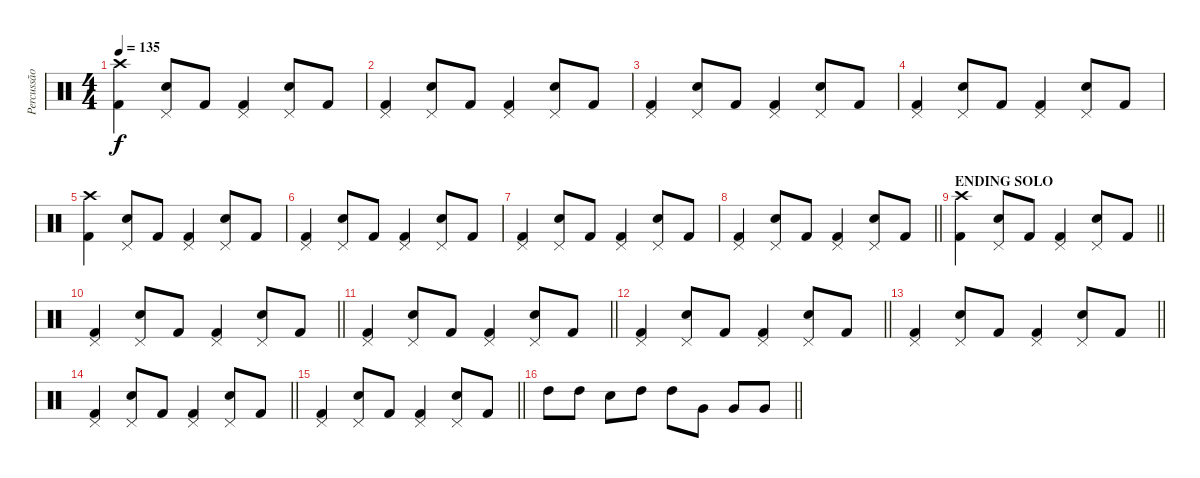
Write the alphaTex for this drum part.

\track ("Percussão" "Percussão") {instrument percussion}
\staff {score}
\articulation defaults
\ts (4 4)
\tempo 135
\clef neutral
\ks c
("Crash high (hit)" "Kick (hit) 2").4{dy f} ("Pedal Hi-Hat (hit)" "Snare (hit) 2").8 "Kick (hit) 2".8 ("Pedal Hi-Hat (hit)" "Kick (hit) 2").4 ("Pedal Hi-Hat (hit)" "Snare (hit) 2").8 "Kick (hit) 2".8 |
("Pedal Hi-Hat (hit)" "Kick (hit) 2").4 ("Pedal Hi-Hat (hit)" "Snare (hit) 2").8 "Kick (hit) 2".8 ("Pedal Hi-Hat (hit)" "Kick (hit) 2").4 ("Pedal Hi-Hat (hit)" "Snare (hit) 2").8 "Kick (hit) 2".8 |
("Pedal Hi-Hat (hit)" "Kick (hit) 2").4 ("Pedal Hi-Hat (hit)" "Snare (hit) 2").8 "Kick (hit) 2".8 ("Pedal Hi-Hat (hit)" "Kick (hit) 2").4 ("Pedal Hi-Hat (hit)" "Snare (hit) 2").8 "Kick (hit) 2".8 |
("Pedal Hi-Hat (hit)" "Kick (hit) 2").4 ("Pedal Hi-Hat (hit)" "Snare (hit) 2").8 "Kick (hit) 2".8 ("Pedal Hi-Hat (hit)" "Kick (hit) 2").4 ("Pedal Hi-Hat (hit)" "Snare (hit) 2").8 "Kick (hit) 2".8 |
("Crash high (hit)" "Kick (hit) 2").4 ("Pedal Hi-Hat (hit)" "Snare (hit) 2").8 "Kick (hit) 2".8 ("Pedal Hi-Hat (hit)" "Kick (hit) 2").4 ("Pedal Hi-Hat (hit)" "Snare (hit) 2").8 "Kick (hit) 2".8 |
("Pedal Hi-Hat (hit)" "Kick (hit) 2").4 ("Pedal Hi-Hat (hit)" "Snare (hit) 2").8 "Kick (hit) 2".8 ("Pedal Hi-Hat (hit)" "Kick (hit) 2").4 ("Pedal Hi-Hat (hit)" "Snare (hit) 2").8 "Kick (hit) 2".8 |
("Pedal Hi-Hat (hit)" "Kick (hit) 2").4 ("Pedal Hi-Hat (hit)" "Snare (hit) 2").8 "Kick (hit) 2".8 ("Pedal Hi-Hat (hit)" "Kick (hit) 2").4 ("Pedal Hi-Hat (hit)" "Snare (hit) 2").8 "Kick (hit) 2".8 |
\barLineRight lightlight
("Pedal Hi-Hat (hit)" "Kick (hit) 2").4 ("Pedal Hi-Hat (hit)" "Snare (hit) 2").8 "Kick (hit) 2".8 ("Pedal Hi-Hat (hit)" "Kick (hit) 2").4 ("Pedal Hi-Hat (hit)" "Snare (hit) 2").8 "Kick (hit) 2".8 |
\section ("" "ENDING SOLO")
\barLineRight lightlight
("Crash high (hit)" "Kick (hit) 2").4 ("Pedal Hi-Hat (hit)" "Snare (hit) 2").8 "Kick (hit) 2".8 ("Pedal Hi-Hat (hit)" "Kick (hit) 2").4 ("Pedal Hi-Hat (hit)" "Snare (hit) 2").8 "Kick (hit) 2".8 |
\barLineRight lightlight
("Pedal Hi-Hat (hit)" "Kick (hit) 2").4 ("Pedal Hi-Hat (hit)" "Snare (hit) 2").8 "Kick (hit) 2".8 ("Pedal Hi-Hat (hit)" "Kick (hit) 2").4 ("Pedal Hi-Hat (hit)" "Snare (hit) 2").8 "Kick (hit) 2".8 |
\barLineRight lightlight
("Pedal Hi-Hat (hit)" "Kick (hit) 2").4 ("Pedal Hi-Hat (hit)" "Snare (hit) 2").8 "Kick (hit) 2".8 ("Pedal Hi-Hat (hit)" "Kick (hit) 2").4 ("Pedal Hi-Hat (hit)" "Snare (hit) 2").8 "Kick (hit) 2".8 |
\barLineRight lightlight
("Pedal Hi-Hat (hit)" "Kick (hit) 2").4 ("Pedal Hi-Hat (hit)" "Snare (hit) 2").8 "Kick (hit) 2".8 ("Pedal Hi-Hat (hit)" "Kick (hit) 2").4 ("Pedal Hi-Hat (hit)" "Snare (hit) 2").8 "Kick (hit) 2".8 |
\barLineRight lightlight
("Pedal Hi-Hat (hit)" "Kick (hit) 2").4 ("Pedal Hi-Hat (hit)" "Snare (hit) 2").8 "Kick (hit) 2".8 ("Pedal Hi-Hat (hit)" "Kick (hit) 2").4 ("Pedal Hi-Hat (hit)" "Snare (hit) 2").8 "Kick (hit) 2".8 |
\barLineRight lightlight
("Pedal Hi-Hat (hit)" "Kick (hit) 2").4 ("Pedal Hi-Hat (hit)" "Snare (hit) 2").8 "Kick (hit) 2".8 ("Pedal Hi-Hat (hit)" "Kick (hit) 2").4 ("Pedal Hi-Hat (hit)" "Snare (hit) 2").8 "Kick (hit) 2".8 |
\barLineRight lightlight
("Pedal Hi-Hat (hit)" "Kick (hit) 2").4 ("Pedal Hi-Hat (hit)" "Snare (hit) 2").8 "Kick (hit) 2".8 ("Pedal Hi-Hat (hit)" "Kick (hit) 2").4 ("Pedal Hi-Hat (hit)" "Snare (hit) 2").8 "Kick (hit) 2".8 |
\barLineRight lightlight "High Tom (hit)".8 "High Tom (hit)".8 "Snare (hit) 2".8 "High Tom (hit)".8 "High Tom (hit)".8 "Very Low Tom (hit)".8 "Very Low Tom (hit)".8 "Very Low Tom (hit)".8
